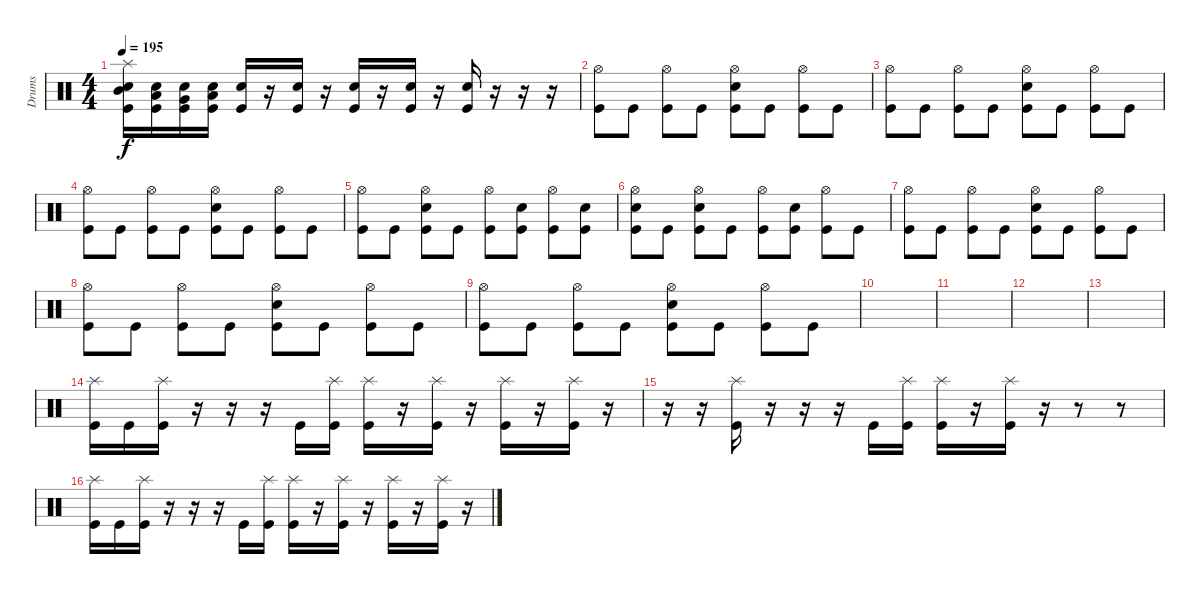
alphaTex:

\track ("Drums" "Drums") {instrument percussion}
\staff {score}
\articulation defaults
\ts (4 4)
\tempo 195
\clef neutral
\ks c
("Splash (hit)" "Mid Tom (hit)" "Electric Snare (hit)" "Kick (hit)").16{dy f} ("Low Tom (hit)" "Electric Snare (hit)" "Kick (hit)").16 ("Very Low Tom (hit)" "Electric Snare (hit)" "Kick (hit)").16 ("Low Floor Tom (hit)" "Electric Snare (hit)" "Kick (hit)").16 ("Electric Snare (hit)" "Kick (hit)").16 r.16 ("Electric Snare (hit)" "Kick (hit)").16 r.16 ("Electric Snare (hit)" "Kick (hit)").16 r.16 ("Electric Snare (hit)" "Kick (hit)").16 r.16 ("Electric Snare (hit)" "Kick (hit)").16 r.16 r.16 r.16 |
("Hi-Hat (open)" "Kick (hit)").8 "Kick (hit)".8 ("Hi-Hat (open)" "Kick (hit)").8 "Kick (hit)".8 ("Hi-Hat (open)" "Electric Snare (hit)" "Kick (hit)").8 "Kick (hit)".8 ("Hi-Hat (open)" "Kick (hit)").8 "Kick (hit)".8 |
("Hi-Hat (open)" "Kick (hit)").8 "Kick (hit)".8 ("Hi-Hat (open)" "Kick (hit)").8 "Kick (hit)".8 ("Hi-Hat (open)" "Electric Snare (hit)" "Kick (hit)").8 "Kick (hit)".8 ("Hi-Hat (open)" "Kick (hit)").8 "Kick (hit)".8 |
("Hi-Hat (open)" "Kick (hit)").8 "Kick (hit)".8 ("Hi-Hat (open)" "Kick (hit)").8 "Kick (hit)".8 ("Hi-Hat (open)" "Electric Snare (hit)" "Kick (hit)").8 "Kick (hit)".8 ("Hi-Hat (open)" "Kick (hit)").8 "Kick (hit)".8 |
("Hi-Hat (open)" "Kick (hit)").8 "Kick (hit)".8 ("Hi-Hat (open)" "Electric Snare (hit)" "Kick (hit)").8 "Kick (hit)".8 ("Hi-Hat (open)" "Kick (hit)").8 ("Electric Snare (hit)" "Kick (hit)").8 ("Hi-Hat (open)" "Kick (hit)").8 ("Electric Snare (hit)" "Kick (hit)").8 |
("Hi-Hat (open)" "Electric Snare (hit)" "Kick (hit)").8 "Kick (hit)".8 ("Hi-Hat (open)" "Electric Snare (hit)" "Kick (hit)").8 "Kick (hit)".8 ("Hi-Hat (open)" "Kick (hit)").8 ("Electric Snare (hit)" "Kick (hit)").8 ("Hi-Hat (open)" "Kick (hit)").8 "Kick (hit)".8 |
("Hi-Hat (open)" "Kick (hit)").8 "Kick (hit)".8 ("Hi-Hat (open)" "Kick (hit)").8 "Kick (hit)".8 ("Hi-Hat (open)" "Electric Snare (hit)" "Kick (hit)").8 "Kick (hit)".8 ("Hi-Hat (open)" "Kick (hit)").8 "Kick (hit)".8 |
("Hi-Hat (open)" "Kick (hit)").8 "Kick (hit)".8 ("Hi-Hat (open)" "Kick (hit)").8 "Kick (hit)".8 ("Hi-Hat (open)" "Electric Snare (hit)" "Kick (hit)").8 "Kick (hit)".8 ("Hi-Hat (open)" "Kick (hit)").8 "Kick (hit)".8 |
("Hi-Hat (open)" "Kick (hit)").8 "Kick (hit)".8 ("Hi-Hat (open)" "Kick (hit)").8 "Kick (hit)".8 ("Hi-Hat (open)" "Electric Snare (hit)" "Kick (hit)").8 "Kick (hit)".8 ("Hi-Hat (open)" "Kick (hit)").8 "Kick (hit)".8 |
|
|
|
|
("Splash (hit)" "Kick (hit)").16 "Kick (hit)".16 ("Splash (hit)" "Kick (hit)").16 r.16 r.16 r.16 "Kick (hit)".16 ("Splash (hit)" "Kick (hit)").16 ("Splash (hit)" "Kick (hit)").16 r.16 ("Splash (hit)" "Kick (hit)").16 r.16 ("Splash (hit)" "Kick (hit)").16 r.16 ("Splash (hit)" "Kick (hit)").16 r.16 |
r.16 r.16 ("Splash (hit)" "Kick (hit)").16 r.16 r.16 r.16 "Kick (hit)".16 ("Splash (hit)" "Kick (hit)").16 ("Splash (hit)" "Kick (hit)").16 r.16 ("Splash (hit)" "Kick (hit)").16 r.16 r.8 r.8 |
("Splash (hit)" "Kick (hit)").16 "Kick (hit)".16 ("Splash (hit)" "Kick (hit)").16 r.16 r.16 r.16 "Kick (hit)".16 ("Splash (hit)" "Kick (hit)").16 ("Splash (hit)" "Kick (hit)").16 r.16 ("Splash (hit)" "Kick (hit)").16 r.16 ("Splash (hit)" "Kick (hit)").16 r.16 ("Splash (hit)" "Kick (hit)").16 r.16
